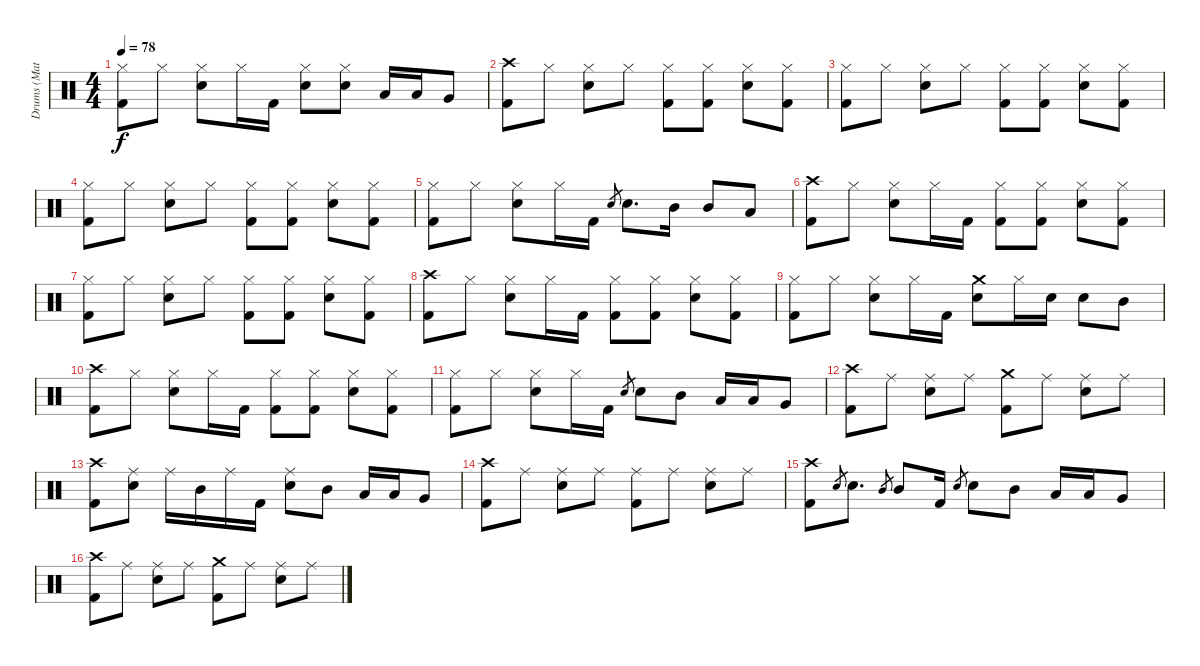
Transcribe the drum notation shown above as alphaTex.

\track ("Drums (Matt)" "Drums (Mat") {instrument percussion}
\staff {score}
\articulation defaults
\ts (4 4)
\tempo 78
\clef neutral
\ks c
("Hi-Hat (closed)" "Kick (hit) 2").8{dy f} "Hi-Hat (closed)".8 ("Hi-Hat (closed)" "Snare (hit) 2").8 "Hi-Hat (closed)".16 "Kick (hit) 2".16 ("Hi-Hat (closed)" "Snare (hit) 2").8 ("Hi-Hat (closed)" "Snare (hit) 2").8 "Low Tom (hit)".16 "Low Tom (hit)".16 "Very Low Tom (hit)".8 |
("Crash high (hit)" "Kick (hit) 2").8 "Hi-Hat (closed)".8 ("Hi-Hat (closed)" "Snare (hit) 2").8 "Hi-Hat (closed)".8 ("Hi-Hat (closed)" "Kick (hit) 2").8 ("Hi-Hat (closed)" "Kick (hit) 2").8 ("Hi-Hat (closed)" "Snare (hit) 2").8 ("Hi-Hat (closed)" "Kick (hit) 2").8 |
("Hi-Hat (closed)" "Kick (hit) 2").8 "Hi-Hat (closed)".8 ("Hi-Hat (closed)" "Snare (hit) 2").8 "Hi-Hat (closed)".8 ("Hi-Hat (closed)" "Kick (hit) 2").8 ("Hi-Hat (closed)" "Kick (hit) 2").8 ("Hi-Hat (closed)" "Snare (hit) 2").8 ("Hi-Hat (closed)" "Kick (hit) 2").8 |
("Hi-Hat (closed)" "Kick (hit) 2").8 "Hi-Hat (closed)".8 ("Hi-Hat (closed)" "Snare (hit) 2").8 "Hi-Hat (closed)".8 ("Hi-Hat (closed)" "Kick (hit) 2").8 ("Hi-Hat (closed)" "Kick (hit) 2").8 ("Hi-Hat (closed)" "Snare (hit) 2").8 ("Hi-Hat (closed)" "Kick (hit) 2").8 |
("Hi-Hat (closed)" "Kick (hit) 2").8 "Hi-Hat (closed)".8 ("Hi-Hat (closed)" "Snare (hit) 2").8 "Hi-Hat (closed)".16 "Kick (hit) 2".16 "Snare (hit) 2".8{gr} "Snare (hit) 2".8{d} "Mid Tom (hit)".16 "Mid Tom (hit)".8 "Low Tom (hit)".8 |
("Crash high (hit)" "Kick (hit) 2").8 "Hi-Hat (closed)".8 ("Hi-Hat (closed)" "Snare (hit) 2").8 "Hi-Hat (closed)".16 "Kick (hit) 2".16 ("Hi-Hat (closed)" "Kick (hit) 2").8 ("Hi-Hat (closed)" "Kick (hit) 2").8 ("Hi-Hat (closed)" "Snare (hit) 2").8 ("Hi-Hat (closed)" "Kick (hit) 2").8 |
("Hi-Hat (closed)" "Kick (hit) 2").8 "Hi-Hat (closed)".8 ("Hi-Hat (closed)" "Snare (hit) 2").8 "Hi-Hat (closed)".8 ("Hi-Hat (closed)" "Kick (hit) 2").8 ("Hi-Hat (closed)" "Kick (hit) 2").8 ("Hi-Hat (closed)" "Snare (hit) 2").8 ("Hi-Hat (closed)" "Kick (hit) 2").8 |
("Crash high (hit)" "Kick (hit) 2").8 "Hi-Hat (closed)".8 ("Hi-Hat (closed)" "Snare (hit) 2").8 "Hi-Hat (closed)".16 "Kick (hit) 2".16 ("Hi-Hat (closed)" "Kick (hit) 2").8 ("Hi-Hat (closed)" "Kick (hit) 2").8 ("Hi-Hat (closed)" "Snare (hit) 2").8 ("Hi-Hat (closed)" "Kick (hit) 2").8 |
("Hi-Hat (closed)" "Kick (hit) 2").8 "Hi-Hat (closed)".8 ("Hi-Hat (closed)" "Snare (hit) 2").8 "Hi-Hat (closed)".16 "Kick (hit) 2".16 ("Crash medium (hit)" "Snare (hit) 2").8 "Hi-Hat (closed)".16 "Snare (hit) 2".16 "Snare (hit) 2".8 "Mid Tom (hit)".8 |
("Crash high (hit)" "Kick (hit) 2").8 "Hi-Hat (closed)".8 ("Hi-Hat (closed)" "Snare (hit) 2").8 "Hi-Hat (closed)".16 "Kick (hit) 2".16 ("Hi-Hat (closed)" "Kick (hit) 2").8 ("Hi-Hat (closed)" "Kick (hit) 2").8 ("Hi-Hat (closed)" "Snare (hit) 2").8 ("Hi-Hat (closed)" "Kick (hit) 2").8 |
("Hi-Hat (closed)" "Kick (hit) 2").8 "Hi-Hat (closed)".8 ("Hi-Hat (closed)" "Snare (hit) 2").8 "Hi-Hat (closed)".16 "Kick (hit) 2".16 "Snare (hit) 2".8{gr} "Snare (hit) 2".8 "Mid Tom (hit)".8 "Low Tom (hit)".16 "Low Tom (hit)".16 "Very Low Tom (hit)".8 |
("Crash high (hit)" "Kick (hit) 2").8 "Ride (middle)".8 ("Ride (middle)" "Snare (hit) 2").8 "Ride (middle)".8 ("Crash medium (hit)" "Kick (hit) 2").8 "Ride (middle)".8 ("Ride (middle)" "Snare (hit) 2").8 "Ride (middle)".8 |
("Crash high (hit)" "Kick (hit) 2").8 ("Ride (middle)" "Snare (hit) 2").8 "Ride (middle)".16 "Mid Tom (hit)".16 "Ride (middle)".16 "Kick (hit) 2".16 ("Ride (middle)" "Snare (hit) 2").8 "Mid Tom (hit)".8 "Low Tom (hit)".16 "Low Tom (hit)".16 "Very Low Tom (hit)".8 |
("Crash high (hit)" "Kick (hit) 2").8 "Ride (middle)".8 ("Ride (middle)" "Snare (hit) 2").8 "Ride (middle)".8 ("Ride (middle)" "Kick (hit) 2").8 "Ride (middle)".8 ("Ride (middle)" "Snare (hit) 2").8 "Ride (middle)".8 |
("Crash high (hit)" "Kick (hit) 2").8 "Snare (hit) 2".8{gr} "Snare (hit) 2".8{d} "Mid Tom (hit)".8{gr} "Mid Tom (hit)".8 "Kick (hit) 2".16 "Snare (hit) 2".8{gr} "Snare (hit) 2".8 "Mid Tom (hit)".8 "Low Tom (hit)".16 "Low Tom (hit)".16 "Very Low Tom (hit)".8 |
("Crash high (hit)" "Kick (hit) 2").8 "Ride (middle)".8 ("Ride (middle)" "Snare (hit) 2").8 "Ride (middle)".8 ("Crash medium (hit)" "Kick (hit) 2").8 "Ride (middle)".8 ("Ride (middle)" "Snare (hit) 2").8 "Ride (middle)".8
